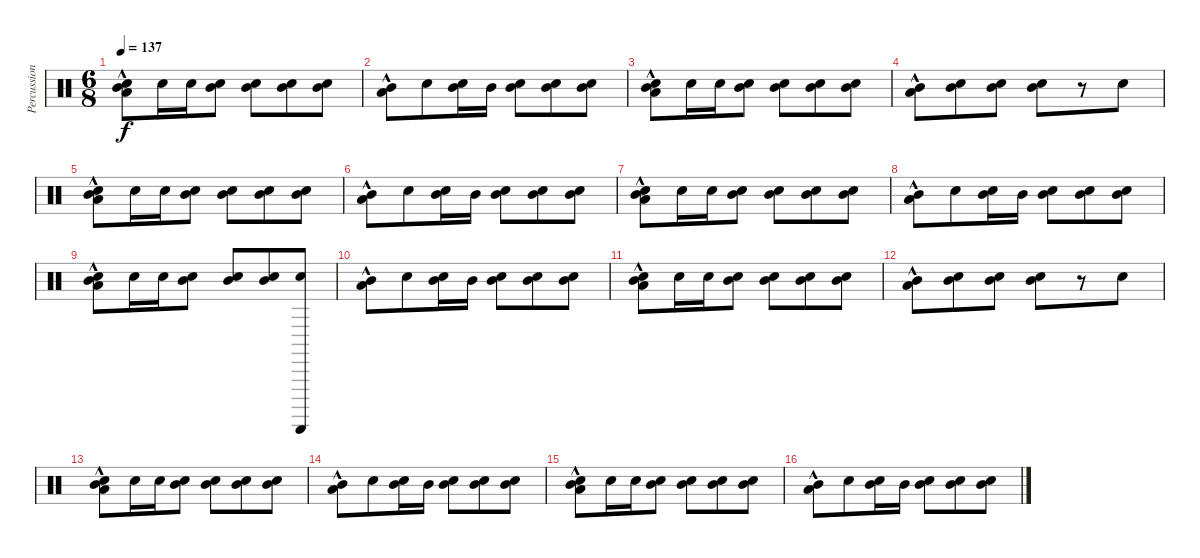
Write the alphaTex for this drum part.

\track ("Percussion" "Percussion") {instrument percussion}
\staff {score}
\articulation defaults
\ts (6 8)
\tempo 137
\clef neutral
\ks c
("Snare (hit) 2" "Mid Tom (hit)" "Low Floor Tom (hit)"{hac}).8{dy f} "Snare (hit) 2".16 "Snare (hit) 2".16 ("Snare (hit) 2" "Mid Tom (hit)").8 ("Snare (hit) 2" "Mid Tom (hit)").8 ("Snare (hit) 2" "Mid Tom (hit)").8 ("Snare (hit) 2" "Mid Tom (hit)").8 |
("Mid Tom (hit)" "Low Floor Tom (hit)"{hac}).8 "Snare (hit) 2".8 ("Snare (hit) 2" "Mid Tom (hit)").16 "Mid Tom (hit)".16 ("Snare (hit) 2" "Mid Tom (hit)").8 ("Snare (hit) 2" "Mid Tom (hit)").8 ("Snare (hit) 2" "Mid Tom (hit)").8 |
("Snare (hit) 2" "Mid Tom (hit)" "Low Floor Tom (hit)"{hac}).8 "Snare (hit) 2".16 "Snare (hit) 2".16 ("Snare (hit) 2" "Mid Tom (hit)").8 ("Snare (hit) 2" "Mid Tom (hit)").8 ("Snare (hit) 2" "Mid Tom (hit)").8 ("Snare (hit) 2" "Mid Tom (hit)").8 |
("Mid Tom (hit)" "Low Floor Tom (hit)"{hac}).8 ("Snare (hit) 2" "Mid Tom (hit)").8 ("Snare (hit) 2" "Mid Tom (hit)").8 ("Snare (hit) 2" "Mid Tom (hit)").8 r.8 "Snare (hit) 2".8 |
("Snare (hit) 2" "Mid Tom (hit)" "Low Floor Tom (hit)"{hac}).8 "Snare (hit) 2".16 "Snare (hit) 2".16 ("Snare (hit) 2" "Mid Tom (hit)").8 ("Snare (hit) 2" "Mid Tom (hit)").8 ("Snare (hit) 2" "Mid Tom (hit)").8 ("Snare (hit) 2" "Mid Tom (hit)").8 |
("Mid Tom (hit)" "Low Floor Tom (hit)"{hac}).8 "Snare (hit) 2".8 ("Snare (hit) 2" "Mid Tom (hit)").16 "Mid Tom (hit)".16 ("Snare (hit) 2" "Mid Tom (hit)").8 ("Snare (hit) 2" "Mid Tom (hit)").8 ("Snare (hit) 2" "Mid Tom (hit)").8 |
("Snare (hit) 2" "Mid Tom (hit)" "Low Floor Tom (hit)"{hac}).8 "Snare (hit) 2".16 "Snare (hit) 2".16 ("Snare (hit) 2" "Mid Tom (hit)").8 ("Snare (hit) 2" "Mid Tom (hit)").8 ("Snare (hit) 2" "Mid Tom (hit)").8 ("Snare (hit) 2" "Mid Tom (hit)").8 |
("Mid Tom (hit)" "Low Floor Tom (hit)"{hac}).8 "Snare (hit) 2".8 ("Snare (hit) 2" "Mid Tom (hit)").16 "Mid Tom (hit)".16 ("Snare (hit) 2" "Mid Tom (hit)").8 ("Snare (hit) 2" "Mid Tom (hit)").8 ("Snare (hit) 2" "Mid Tom (hit)").8 |
("Snare (hit) 2" "Mid Tom (hit)" "Low Floor Tom (hit)"{hac}).8 "Snare (hit) 2".16 "Snare (hit) 2".16 ("Snare (hit) 2" "Mid Tom (hit)").8 ("Snare (hit) 2" "Mid Tom (hit)").8 ("Snare (hit) 2" "Mid Tom (hit)").8 ("Snare (hit) 2" "Guiro (scrap-return)").8 |
("Mid Tom (hit)" "Low Floor Tom (hit)"{hac}).8 "Snare (hit) 2".8 ("Snare (hit) 2" "Mid Tom (hit)").16 "Mid Tom (hit)".16 ("Snare (hit) 2" "Mid Tom (hit)").8 ("Snare (hit) 2" "Mid Tom (hit)").8 ("Snare (hit) 2" "Mid Tom (hit)").8 |
("Snare (hit) 2" "Mid Tom (hit)" "Low Floor Tom (hit)"{hac}).8 "Snare (hit) 2".16 "Snare (hit) 2".16 ("Snare (hit) 2" "Mid Tom (hit)").8 ("Snare (hit) 2" "Mid Tom (hit)").8 ("Snare (hit) 2" "Mid Tom (hit)").8 ("Snare (hit) 2" "Mid Tom (hit)").8 |
("Mid Tom (hit)" "Low Floor Tom (hit)"{hac}).8 ("Snare (hit) 2" "Mid Tom (hit)").8 ("Snare (hit) 2" "Mid Tom (hit)").8 ("Snare (hit) 2" "Mid Tom (hit)").8 r.8 "Snare (hit) 2".8 |
("Snare (hit) 2" "Mid Tom (hit)" "Low Floor Tom (hit)"{hac}).8 "Snare (hit) 2".16 "Snare (hit) 2".16 ("Snare (hit) 2" "Mid Tom (hit)").8 ("Snare (hit) 2" "Mid Tom (hit)").8 ("Snare (hit) 2" "Mid Tom (hit)").8 ("Snare (hit) 2" "Mid Tom (hit)").8 |
("Mid Tom (hit)" "Low Floor Tom (hit)"{hac}).8 "Snare (hit) 2".8 ("Snare (hit) 2" "Mid Tom (hit)").16 "Mid Tom (hit)".16 ("Snare (hit) 2" "Mid Tom (hit)").8 ("Snare (hit) 2" "Mid Tom (hit)").8 ("Snare (hit) 2" "Mid Tom (hit)").8 |
("Snare (hit) 2" "Mid Tom (hit)" "Low Floor Tom (hit)"{hac}).8 "Snare (hit) 2".16 "Snare (hit) 2".16 ("Snare (hit) 2" "Mid Tom (hit)").8 ("Snare (hit) 2" "Mid Tom (hit)").8 ("Snare (hit) 2" "Mid Tom (hit)").8 ("Snare (hit) 2" "Mid Tom (hit)").8 |
("Mid Tom (hit)" "Low Floor Tom (hit)"{hac}).8 "Snare (hit) 2".8 ("Snare (hit) 2" "Mid Tom (hit)").16 "Mid Tom (hit)".16 ("Snare (hit) 2" "Mid Tom (hit)").8 ("Snare (hit) 2" "Mid Tom (hit)").8 ("Snare (hit) 2" "Mid Tom (hit)").8
